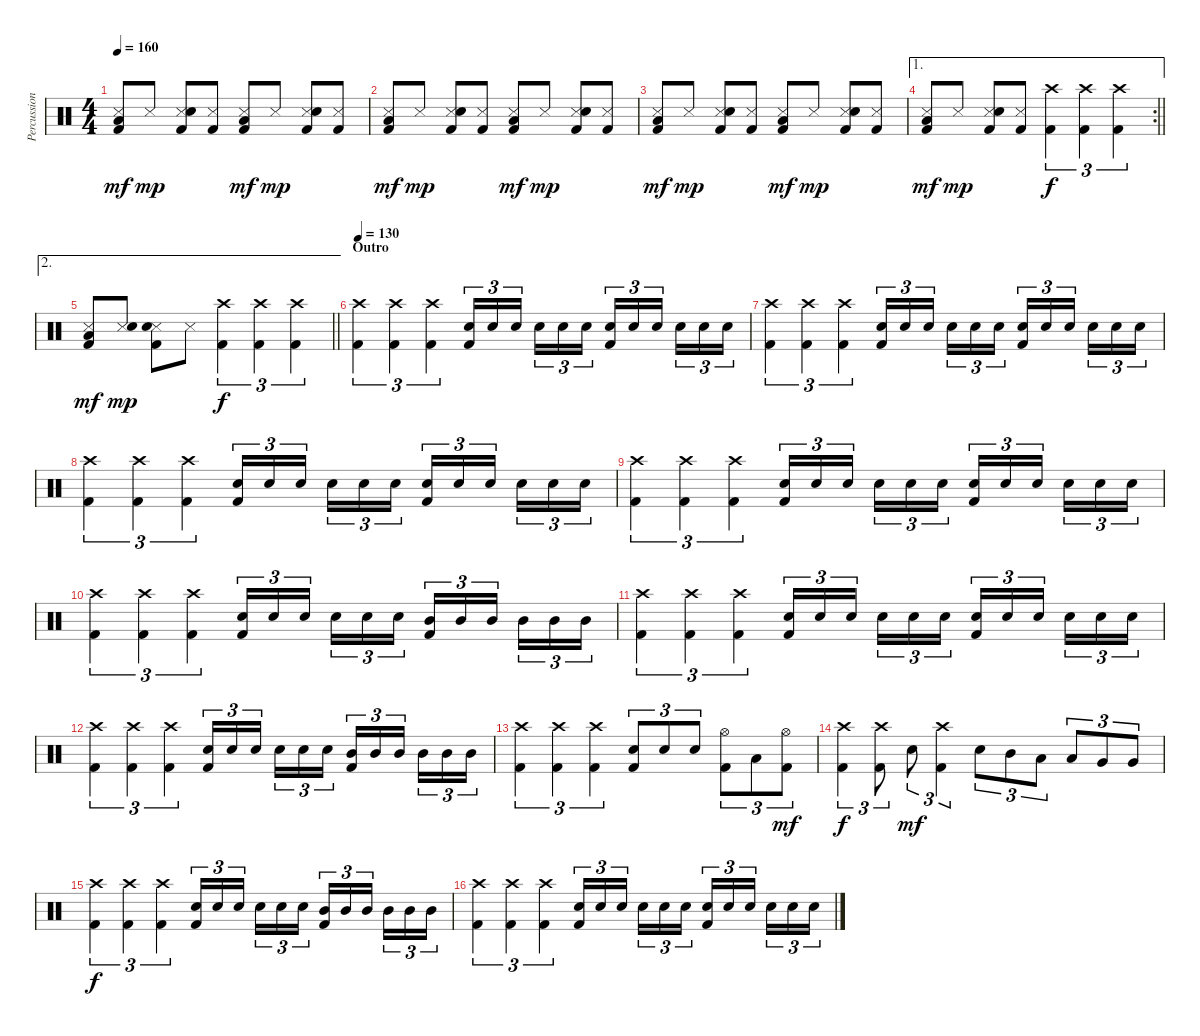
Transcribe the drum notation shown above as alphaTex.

\track ("Percussion" "Percussion") {instrument percussion}
\staff {score}
\articulation defaults
\ts (4 4)
\tempo 160
\clef neutral
\ks c
("Snare (side stick) 3" "Low Tom (hit)" "Kick (hit) 2").8{dy mf} "Snare (side stick) 3".8{dy mp} ("Snare (side stick) 3" "Electric Snare (hit)" "Kick (hit) 2").8 ("Snare (side stick) 3" "Kick (hit) 2").8 ("Snare (side stick) 3" "Low Tom (hit)" "Kick (hit) 2").8{dy mf} "Snare (side stick) 3".8{dy mp} ("Snare (side stick) 3" "Electric Snare (hit)" "Kick (hit) 2").8 ("Snare (side stick) 3" "Kick (hit) 2").8 |
("Snare (side stick) 3" "Low Tom (hit)" "Kick (hit) 2").8{dy mf} "Snare (side stick) 3".8{dy mp} ("Snare (side stick) 3" "Electric Snare (hit)" "Kick (hit) 2").8 ("Snare (side stick) 3" "Kick (hit) 2").8 ("Snare (side stick) 3" "Low Tom (hit)" "Kick (hit) 2").8{dy mf} "Snare (side stick) 3".8{dy mp} ("Snare (side stick) 3" "Electric Snare (hit)" "Kick (hit) 2").8 ("Snare (side stick) 3" "Kick (hit) 2").8 |
("Snare (side stick) 3" "Low Tom (hit)" "Kick (hit) 2").8{dy mf} "Snare (side stick) 3".8{dy mp} ("Snare (side stick) 3" "Electric Snare (hit)" "Kick (hit) 2").8 ("Snare (side stick) 3" "Kick (hit) 2").8 ("Snare (side stick) 3" "Low Tom (hit)" "Kick (hit) 2").8{dy mf} "Snare (side stick) 3".8{dy mp} ("Snare (side stick) 3" "Electric Snare (hit)" "Kick (hit) 2").8 ("Snare (side stick) 3" "Kick (hit) 2").8 |
\ae 1
\rc 2
\barLineRight lightlight
("Snare (side stick) 3" "Low Tom (hit)" "Kick (hit) 2").8{dy mf} "Snare (side stick) 3".8{dy mp} ("Snare (side stick) 3" "Electric Snare (hit)" "Kick (hit) 2").8 ("Snare (side stick) 3" "Kick (hit) 2").8 ("Crash high (hit)" "Kick (hit) 2").4{tu (3 2) dy f} ("Crash high (hit)" "Kick (hit) 2").4{tu (3 2)} ("Crash high (hit)" "Kick (hit) 2").4{tu (3 2)} |
\ae 2
\barLineRight lightlight
("Snare (side stick) 3" "Low Tom (hit)" "Kick (hit) 2").8{dy mf} ("Snare (side stick) 3" "Electric Snare (hit)").8{dy mp} ("Snare (side stick) 3" "Electric Snare (hit)" "Kick (hit) 2").8 "Snare (side stick) 3".8 ("Crash high (hit)" "Kick (hit) 2").4{tu (3 2) dy f} ("Crash high (hit)" "Kick (hit) 2").4{tu (3 2)} ("Crash high (hit)" "Kick (hit) 2").4{tu (3 2)} |
\section ("" "Outro")
\tempo 130
("Crash high (hit)" "Kick (hit) 2").4{tu (3 2)} ("Crash high (hit)" "Kick (hit) 2").4{tu (3 2)} ("Crash high (hit)" "Kick (hit) 2").4{tu (3 2)} ("Electric Snare (hit)" "Kick (hit) 2").16{tu (3 2)} "Electric Snare (hit)".16{tu (3 2)} "Electric Snare (hit)".16{tu (3 2) beam splitsecondary} "Electric Snare (hit)".16{tu (3 2)} "Electric Snare (hit)".16{tu (3 2)} "Electric Snare (hit)".16{tu (3 2)} ("Electric Snare (hit)" "Kick (hit) 2").16{tu (3 2)} "Electric Snare (hit)".16{tu (3 2)} "Electric Snare (hit)".16{tu (3 2) beam splitsecondary} "Electric Snare (hit)".16{tu (3 2)} "Electric Snare (hit)".16{tu (3 2)} "Electric Snare (hit)".16{tu (3 2)} |
("Crash high (hit)" "Kick (hit) 2").4{tu (3 2)} ("Crash high (hit)" "Kick (hit) 2").4{tu (3 2)} ("Crash high (hit)" "Kick (hit) 2").4{tu (3 2)} ("Electric Snare (hit)" "Kick (hit) 2").16{tu (3 2)} "Electric Snare (hit)".16{tu (3 2)} "Electric Snare (hit)".16{tu (3 2) beam splitsecondary} "Electric Snare (hit)".16{tu (3 2)} "Electric Snare (hit)".16{tu (3 2)} "Electric Snare (hit)".16{tu (3 2)} ("Electric Snare (hit)" "Kick (hit) 2").16{tu (3 2)} "Electric Snare (hit)".16{tu (3 2)} "Electric Snare (hit)".16{tu (3 2) beam splitsecondary} "Electric Snare (hit)".16{tu (3 2)} "Electric Snare (hit)".16{tu (3 2)} "Electric Snare (hit)".16{tu (3 2)} |
("Crash high (hit)" "Kick (hit) 2").4{tu (3 2)} ("Crash high (hit)" "Kick (hit) 2").4{tu (3 2)} ("Crash high (hit)" "Kick (hit) 2").4{tu (3 2)} ("Electric Snare (hit)" "Kick (hit) 2").16{tu (3 2)} "Electric Snare (hit)".16{tu (3 2)} "Electric Snare (hit)".16{tu (3 2) beam splitsecondary} "Electric Snare (hit)".16{tu (3 2)} "Electric Snare (hit)".16{tu (3 2)} "Electric Snare (hit)".16{tu (3 2)} ("Electric Snare (hit)" "Kick (hit) 2").16{tu (3 2)} "Electric Snare (hit)".16{tu (3 2)} "Electric Snare (hit)".16{tu (3 2) beam splitsecondary} "Electric Snare (hit)".16{tu (3 2)} "Electric Snare (hit)".16{tu (3 2)} "Electric Snare (hit)".16{tu (3 2)} |
("Crash high (hit)" "Kick (hit) 2").4{tu (3 2)} ("Crash high (hit)" "Kick (hit) 2").4{tu (3 2)} ("Crash high (hit)" "Kick (hit) 2").4{tu (3 2)} ("Electric Snare (hit)" "Kick (hit) 2").16{tu (3 2)} "Electric Snare (hit)".16{tu (3 2)} "Electric Snare (hit)".16{tu (3 2) beam splitsecondary} "Electric Snare (hit)".16{tu (3 2)} "Electric Snare (hit)".16{tu (3 2)} "Electric Snare (hit)".16{tu (3 2)} ("Electric Snare (hit)" "Kick (hit) 2").16{tu (3 2)} "Electric Snare (hit)".16{tu (3 2)} "Electric Snare (hit)".16{tu (3 2) beam splitsecondary} "Electric Snare (hit)".16{tu (3 2)} "Electric Snare (hit)".16{tu (3 2)} "Electric Snare (hit)".16{tu (3 2)} |
("Crash high (hit)" "Kick (hit) 2").4{tu (3 2)} ("Crash high (hit)" "Kick (hit) 2").4{tu (3 2)} ("Crash high (hit)" "Kick (hit) 2").4{tu (3 2)} ("Electric Snare (hit)" "Kick (hit) 2").16{tu (3 2)} "Electric Snare (hit)".16{tu (3 2)} "Electric Snare (hit)".16{tu (3 2) beam splitsecondary} "Electric Snare (hit)".16{tu (3 2)} "Electric Snare (hit)".16{tu (3 2)} "Electric Snare (hit)".16{tu (3 2)} ("Mid Tom (hit)" "Kick (hit) 2").16{tu (3 2)} "Mid Tom (hit)".16{tu (3 2)} "Mid Tom (hit)".16{tu (3 2) beam splitsecondary} "Mid Tom (hit)".16{tu (3 2)} "Mid Tom (hit)".16{tu (3 2)} "Mid Tom (hit)".16{tu (3 2)} |
("Crash high (hit)" "Kick (hit) 2").4{tu (3 2)} ("Crash high (hit)" "Kick (hit) 2").4{tu (3 2)} ("Crash high (hit)" "Kick (hit) 2").4{tu (3 2)} ("Electric Snare (hit)" "Kick (hit) 2").16{tu (3 2)} "Electric Snare (hit)".16{tu (3 2)} "Electric Snare (hit)".16{tu (3 2) beam splitsecondary} "Electric Snare (hit)".16{tu (3 2)} "Electric Snare (hit)".16{tu (3 2)} "Electric Snare (hit)".16{tu (3 2)} ("Electric Snare (hit)" "Kick (hit) 2").16{tu (3 2)} "Electric Snare (hit)".16{tu (3 2)} "Electric Snare (hit)".16{tu (3 2) beam splitsecondary} "Electric Snare (hit)".16{tu (3 2)} "Electric Snare (hit)".16{tu (3 2)} "Electric Snare (hit)".16{tu (3 2)} |
("Crash high (hit)" "Kick (hit) 2").4{tu (3 2)} ("Crash high (hit)" "Kick (hit) 2").4{tu (3 2)} ("Crash high (hit)" "Kick (hit) 2").4{tu (3 2)} ("Electric Snare (hit)" "Kick (hit) 2").16{tu (3 2)} "Electric Snare (hit)".16{tu (3 2)} "Electric Snare (hit)".16{tu (3 2) beam splitsecondary} "Electric Snare (hit)".16{tu (3 2)} "Electric Snare (hit)".16{tu (3 2)} "Electric Snare (hit)".16{tu (3 2)} ("Mid Tom (hit)" "Kick (hit) 2").16{tu (3 2)} "Mid Tom (hit)".16{tu (3 2)} "Mid Tom (hit)".16{tu (3 2) beam splitsecondary} "Mid Tom (hit)".16{tu (3 2)} "Mid Tom (hit)".16{tu (3 2)} "Mid Tom (hit)".16{tu (3 2)} |
("Crash high (hit)" "Kick (hit) 2").4{tu (3 2)} ("Crash high (hit)" "Kick (hit) 2").4{tu (3 2)} ("Crash high (hit)" "Kick (hit) 2").4{tu (3 2)} ("Electric Snare (hit)" "Kick (hit) 2").8{tu (3 2)} "Electric Snare (hit)".8{tu (3 2)} "Electric Snare (hit)".8{tu (3 2)} ("Hi-Hat (open)" "Kick (hit) 2").8{tu (3 2)} "Low Tom (hit)".8{tu (3 2)} ("Hi-Hat (open)" "Kick (hit) 2").8{tu (3 2) dy mf} |
("Crash high (hit)" "Kick (hit) 2").4{tu (3 2) dy f} ("Crash high (hit)" "Kick (hit) 2").8{tu (3 2)} "Electric Snare (hit)".8{tu (3 2) dy mf} ("Crash high (hit)" "Kick (hit) 2").4{tu (3 2)} "Electric Snare (hit)".8{tu (3 2)} "Mid Tom (hit)".8{tu (3 2)} "Low Tom (hit)".8{tu (3 2)} "Low Tom (hit)".8{tu (3 2)} "Very Low Tom (hit)".8{tu (3 2)} "Very Low Tom (hit)".8{tu (3 2)} |
("Crash high (hit)" "Kick (hit) 2").4{tu (3 2) dy f} ("Crash high (hit)" "Kick (hit) 2").4{tu (3 2)} ("Crash high (hit)" "Kick (hit) 2").4{tu (3 2)} ("Electric Snare (hit)" "Kick (hit) 2").16{tu (3 2)} "Electric Snare (hit)".16{tu (3 2)} "Electric Snare (hit)".16{tu (3 2) beam splitsecondary} "Electric Snare (hit)".16{tu (3 2)} "Electric Snare (hit)".16{tu (3 2)} "Electric Snare (hit)".16{tu (3 2)} ("Mid Tom (hit)" "Kick (hit) 2").16{tu (3 2)} "Mid Tom (hit)".16{tu (3 2)} "Mid Tom (hit)".16{tu (3 2) beam splitsecondary} "Mid Tom (hit)".16{tu (3 2)} "Mid Tom (hit)".16{tu (3 2)} "Mid Tom (hit)".16{tu (3 2)} |
("Crash high (hit)" "Kick (hit) 2").4{tu (3 2)} ("Crash high (hit)" "Kick (hit) 2").4{tu (3 2)} ("Crash high (hit)" "Kick (hit) 2").4{tu (3 2)} ("Electric Snare (hit)" "Kick (hit) 2").16{tu (3 2)} "Electric Snare (hit)".16{tu (3 2)} "Electric Snare (hit)".16{tu (3 2) beam splitsecondary} "Electric Snare (hit)".16{tu (3 2)} "Electric Snare (hit)".16{tu (3 2)} "Electric Snare (hit)".16{tu (3 2)} ("Electric Snare (hit)" "Kick (hit) 2").16{tu (3 2)} "Electric Snare (hit)".16{tu (3 2)} "Electric Snare (hit)".16{tu (3 2) beam splitsecondary} "Electric Snare (hit)".16{tu (3 2)} "Electric Snare (hit)".16{tu (3 2)} "Electric Snare (hit)".16{tu (3 2)}
